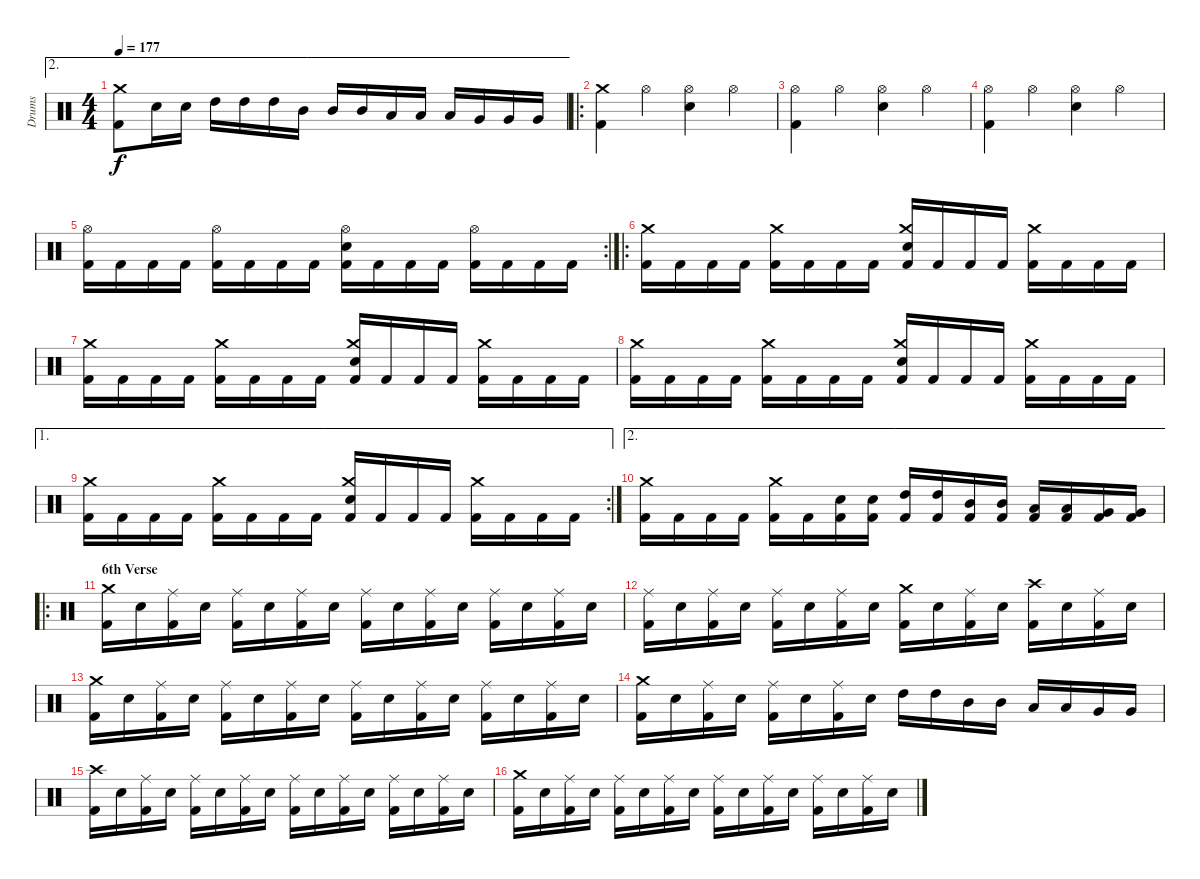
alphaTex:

\track ("Drums" "Drums") {instrument percussion}
\staff {score}
\articulation defaults
\ae 2
\ts (4 4)
\tempo 177
\clef neutral
\ks c
("Kick (hit) 2" "Crash medium (hit)").8{dy f} "Electric Snare (hit)".16 "Electric Snare (hit)".16 "High Tom (hit)".16 "High Tom (hit)".16 "High Tom (hit)".16 "Mid Tom (hit)".16 "Mid Tom (hit)".16 "Mid Tom (hit)".16 "Low Tom (hit)".16 "Low Tom (hit)".16 "Low Tom (hit)".16 "Very Low Tom (hit)".16 "Very Low Tom (hit)".16 "Very Low Tom (hit)".16 |
\ro
("Kick (hit) 2" "Crash medium (hit)").4 "Hi-Hat (open)".4 ("Electric Snare (hit)" "Hi-Hat (open)").4 "Hi-Hat (open)".4 |
("Kick (hit) 2" "Hi-Hat (open)").4 "Hi-Hat (open)".4 ("Electric Snare (hit)" "Hi-Hat (open)").4 "Hi-Hat (open)".4 |
("Kick (hit) 2" "Hi-Hat (open)").4 "Hi-Hat (open)".4 ("Electric Snare (hit)" "Hi-Hat (open)").4 "Hi-Hat (open)".4 |
\rc 2
("Kick (hit) 2" "Hi-Hat (open)").16 "Kick (hit) 2".16 "Kick (hit) 2".16 "Kick (hit) 2".16 ("Kick (hit) 2" "Hi-Hat (open)").16 "Kick (hit) 2".16 "Kick (hit) 2".16 "Kick (hit) 2".16 ("Kick (hit) 2" "Electric Snare (hit)" "Hi-Hat (open)").16 "Kick (hit) 2".16 "Kick (hit) 2".16 "Kick (hit) 2".16 ("Kick (hit) 2" "Hi-Hat (open)").16 "Kick (hit) 2".16 "Kick (hit) 2".16 "Kick (hit) 2".16 |
\ro
("Kick (hit) 2" "Crash medium (hit)").16 "Kick (hit) 2".16 "Kick (hit) 2".16 "Kick (hit) 2".16 ("Kick (hit) 2" "Crash medium (hit)").16 "Kick (hit) 2".16 "Kick (hit) 2".16 "Kick (hit) 2".16 ("Kick (hit) 2" "Electric Snare (hit)" "Crash medium (hit)").16 "Kick (hit) 2".16 "Kick (hit) 2".16 "Kick (hit) 2".16 ("Kick (hit) 2" "Crash medium (hit)").16 "Kick (hit) 2".16 "Kick (hit) 2".16 "Kick (hit) 2".16 |
("Kick (hit) 2" "Crash medium (hit)").16 "Kick (hit) 2".16 "Kick (hit) 2".16 "Kick (hit) 2".16 ("Kick (hit) 2" "Crash medium (hit)").16 "Kick (hit) 2".16 "Kick (hit) 2".16 "Kick (hit) 2".16 ("Kick (hit) 2" "Electric Snare (hit)" "Crash medium (hit)").16 "Kick (hit) 2".16 "Kick (hit) 2".16 "Kick (hit) 2".16 ("Kick (hit) 2" "Crash medium (hit)").16 "Kick (hit) 2".16 "Kick (hit) 2".16 "Kick (hit) 2".16 |
("Kick (hit) 2" "Crash medium (hit)").16 "Kick (hit) 2".16 "Kick (hit) 2".16 "Kick (hit) 2".16 ("Kick (hit) 2" "Crash medium (hit)").16 "Kick (hit) 2".16 "Kick (hit) 2".16 "Kick (hit) 2".16 ("Kick (hit) 2" "Electric Snare (hit)" "Crash medium (hit)").16 "Kick (hit) 2".16 "Kick (hit) 2".16 "Kick (hit) 2".16 ("Kick (hit) 2" "Crash medium (hit)").16 "Kick (hit) 2".16 "Kick (hit) 2".16 "Kick (hit) 2".16 |
\ae 1
\rc 2
("Kick (hit) 2" "Crash medium (hit)").16 "Kick (hit) 2".16 "Kick (hit) 2".16 "Kick (hit) 2".16 ("Kick (hit) 2" "Crash medium (hit)").16 "Kick (hit) 2".16 "Kick (hit) 2".16 "Kick (hit) 2".16 ("Kick (hit) 2" "Electric Snare (hit)" "Crash medium (hit)").16 "Kick (hit) 2".16 "Kick (hit) 2".16 "Kick (hit) 2".16 ("Kick (hit) 2" "Crash medium (hit)").16 "Kick (hit) 2".16 "Kick (hit) 2".16 "Kick (hit) 2".16 |
\ae 2
("Kick (hit) 2" "Crash medium (hit)").16 "Kick (hit) 2".16 "Kick (hit) 2".16 "Kick (hit) 2".16 ("Kick (hit) 2" "Crash medium (hit)").16 "Kick (hit) 2".16 ("Kick (hit) 2" "Electric Snare (hit)").16 ("Kick (hit) 2" "Electric Snare (hit)").16 ("Kick (hit) 2" "High Tom (hit)").16 ("Kick (hit) 2" "High Tom (hit)").16 ("Kick (hit) 2" "Mid Tom (hit)").16 ("Kick (hit) 2" "Mid Tom (hit)").16 ("Kick (hit) 2" "Low Tom (hit)").16 ("Kick (hit) 2" "Low Tom (hit)").16 ("Kick (hit) 2" "Very Low Tom (hit)").16 ("Kick (hit) 2" "Very Low Tom (hit)").16 |
\ro
\section ("" "6th Verse")
("Kick (hit) 2" "Crash medium (hit)").16 "Electric Snare (hit)".16 ("Kick (hit) 2" "Ride (middle)").16 "Electric Snare (hit)".16 ("Kick (hit) 2" "Ride (middle)").16 "Electric Snare (hit)".16 ("Kick (hit) 2" "Ride (middle)").16 "Electric Snare (hit)".16 ("Kick (hit) 2" "Ride (middle)").16 "Electric Snare (hit)".16 ("Kick (hit) 2" "Ride (middle)").16 "Electric Snare (hit)".16 ("Kick (hit) 2" "Ride (middle)").16 "Electric Snare (hit)".16 ("Kick (hit) 2" "Ride (middle)").16 "Electric Snare (hit)".16 |
("Kick (hit) 2" "Ride (middle)").16 "Electric Snare (hit)".16 ("Kick (hit) 2" "Ride (middle)").16 "Electric Snare (hit)".16 ("Kick (hit) 2" "Ride (middle)").16 "Electric Snare (hit)".16 ("Kick (hit) 2" "Ride (middle)").16 "Electric Snare (hit)".16 ("Kick (hit) 2" "Crash medium (hit)").16 "Electric Snare (hit)".16 ("Kick (hit) 2" "Ride (middle)").16 "Electric Snare (hit)".16 ("Kick (hit) 2" "Crash high (hit)").16 "Electric Snare (hit)".16 ("Kick (hit) 2" "Ride (middle)").16 "Electric Snare (hit)".16 |
("Kick (hit) 2" "Crash medium (hit)").16 "Electric Snare (hit)".16 ("Kick (hit) 2" "Ride (middle)").16 "Electric Snare (hit)".16 ("Kick (hit) 2" "Ride (middle)").16 "Electric Snare (hit)".16 ("Kick (hit) 2" "Ride (middle)").16 "Electric Snare (hit)".16 ("Kick (hit) 2" "Ride (middle)").16 "Electric Snare (hit)".16 ("Kick (hit) 2" "Ride (middle)").16 "Electric Snare (hit)".16 ("Kick (hit) 2" "Ride (middle)").16 "Electric Snare (hit)".16 ("Kick (hit) 2" "Ride (middle)").16 "Electric Snare (hit)".16 |
("Kick (hit) 2" "Crash medium (hit)").16 "Electric Snare (hit)".16 ("Kick (hit) 2" "Ride (middle)").16 "Electric Snare (hit)".16 ("Kick (hit) 2" "Ride (middle)").16 "Electric Snare (hit)".16 ("Kick (hit) 2" "Ride (middle)").16 "Electric Snare (hit)".16 "High Tom (hit)".16 "High Tom (hit)".16 "Mid Tom (hit)".16 "Mid Tom (hit)".16 "Low Tom (hit)".16 "Low Tom (hit)".16 "Very Low Tom (hit)".16 "Very Low Tom (hit)".16 |
("Kick (hit) 2" "Crash high (hit)").16 "Electric Snare (hit)".16 ("Kick (hit) 2" "Ride (middle)").16 "Electric Snare (hit)".16 ("Kick (hit) 2" "Ride (middle)").16 "Electric Snare (hit)".16 ("Kick (hit) 2" "Ride (middle)").16 "Electric Snare (hit)".16 ("Kick (hit) 2" "Ride (middle)").16 "Electric Snare (hit)".16 ("Kick (hit) 2" "Ride (middle)").16 "Electric Snare (hit)".16 ("Kick (hit) 2" "Ride (middle)").16 "Electric Snare (hit)".16 ("Kick (hit) 2" "Ride (middle)").16 "Electric Snare (hit)".16 |
("Kick (hit) 2" "Crash medium (hit)").16 "Electric Snare (hit)".16 ("Kick (hit) 2" "Ride (middle)").16 "Electric Snare (hit)".16 ("Kick (hit) 2" "Ride (middle)").16 "Electric Snare (hit)".16 ("Kick (hit) 2" "Ride (middle)").16 "Electric Snare (hit)".16 ("Kick (hit) 2" "Ride (middle)").16 "Electric Snare (hit)".16 ("Kick (hit) 2" "Ride (middle)").16 "Electric Snare (hit)".16 ("Kick (hit) 2" "Ride (middle)").16 "Electric Snare (hit)".16 ("Kick (hit) 2" "Ride (middle)").16 "Electric Snare (hit)".16
